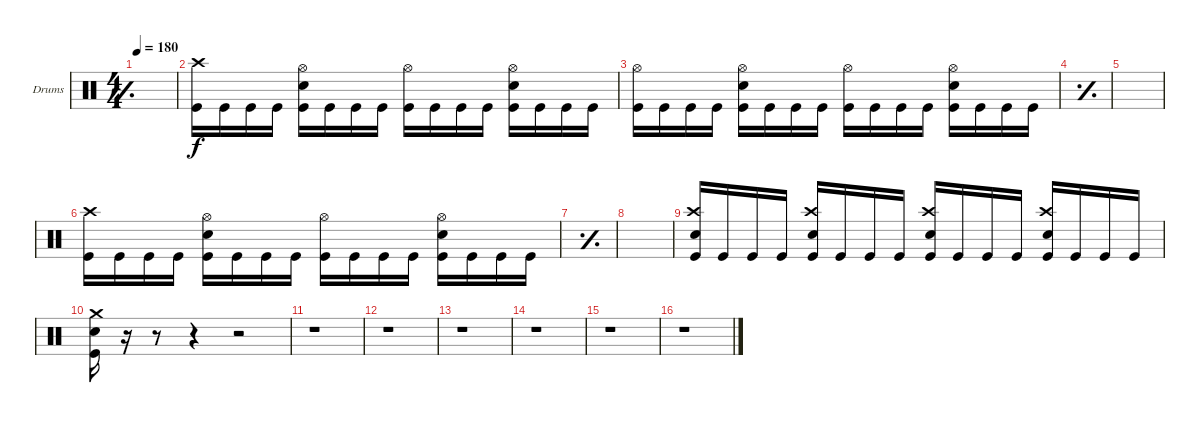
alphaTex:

\defaultSystemsLayout 4
\bracketExtendMode groupsimilarinstruments
\firstSystemTrackNameOrientation horizontal
\otherSystemsTrackNameOrientation horizontal
\track ("Drumkit" "Drums") {instrument percussion}
\staff {score}
\articulation defaults
\ts (4 4)
\tempo 180
\clef neutral
\simile simple
\ks c
|
("Kick (hit)" "Crash high (hit)").16 "Kick (hit)".16 "Kick (hit)".16 "Kick (hit)".16 ("Kick (hit)" "Snare (hit) 2" "Hi-Hat (open)").16 "Kick (hit)".16 "Kick (hit)".16 "Kick (hit)".16 ("Kick (hit)" "Hi-Hat (open)").16 "Kick (hit)".16 "Kick (hit)".16 "Kick (hit)".16 ("Kick (hit)" "Snare (hit) 2" "Hi-Hat (open)").16 "Kick (hit)".16 "Kick (hit)".16 "Kick (hit)".16 |
("Kick (hit)" "Hi-Hat (open)").16 "Kick (hit)".16 "Kick (hit)".16 "Kick (hit)".16 ("Kick (hit)" "Snare (hit) 2" "Hi-Hat (open)").16 "Kick (hit)".16 "Kick (hit)".16 "Kick (hit)".16 ("Kick (hit)" "Hi-Hat (open)").16 "Kick (hit)".16 "Kick (hit)".16 "Kick (hit)".16 ("Kick (hit)" "Snare (hit) 2" "Hi-Hat (open)").16 "Kick (hit)".16 "Kick (hit)".16 "Kick (hit)".16 |
\simile simple
|
|
\simile none
("Kick (hit)" "Crash high (hit)").16 "Kick (hit)".16 "Kick (hit)".16 "Kick (hit)".16 ("Kick (hit)" "Snare (hit) 2" "Hi-Hat (open)").16 "Kick (hit)".16 "Kick (hit)".16 "Kick (hit)".16 ("Kick (hit)" "Hi-Hat (open)").16 "Kick (hit)".16 "Kick (hit)".16 "Kick (hit)".16 ("Kick (hit)" "Snare (hit) 2" "Hi-Hat (open)").16 "Kick (hit)".16 "Kick (hit)".16 "Kick (hit)".16 |
\simile simple
|
|
\simile none
("Kick (hit)" "Snare (hit) 2" "Crash high (hit)").16 "Kick (hit)".16 "Kick (hit)".16 "Kick (hit)".16 ("Kick (hit)" "Snare (hit) 2" "Crash high (hit)").16 "Kick (hit)".16 "Kick (hit)".16 "Kick (hit)".16 ("Kick (hit)" "Snare (hit) 2" "Crash high (hit)").16 "Kick (hit)".16 "Kick (hit)".16 "Kick (hit)".16 ("Kick (hit)" "Snare (hit) 2" "Crash high (hit)").16 "Kick (hit)".16 "Kick (hit)".16 "Kick (hit)".16 |
("Crash medium (hit)" "Snare (hit) 2" "Kick (hit)").16 r.16 r.8 r.4 r.2 |
r.1 |
r.1 |
r.1 |
r.1 |
r.1 |
r.1
